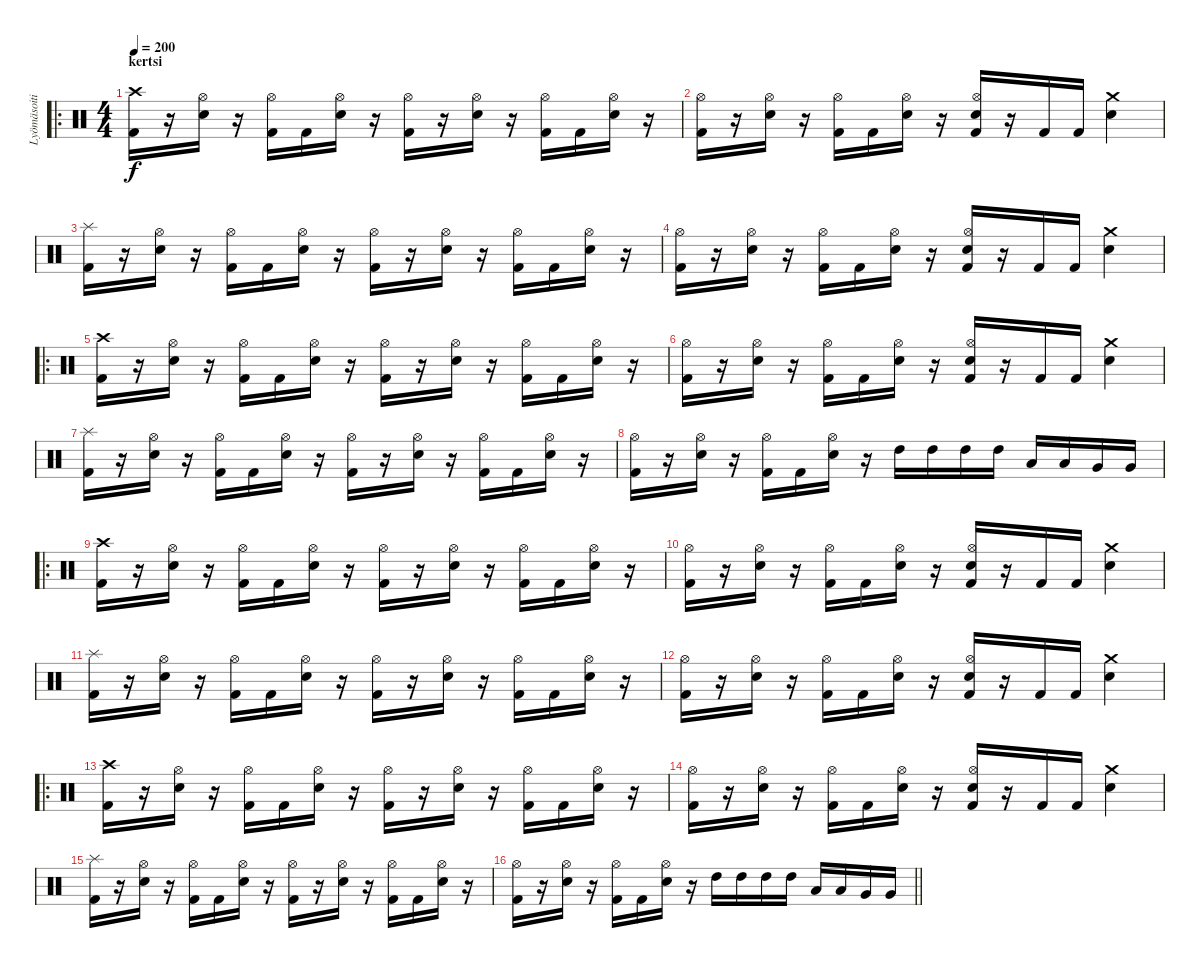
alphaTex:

\track ("Lyömäsoitin" "Lyömäsoiti") {instrument percussion}
\staff {score}
\articulation defaults
\ro
\ts (4 4)
\section ("" "kertsi")
\tempo 200
\clef neutral
\ks c
("Crash high (hit)" "Kick (hit) 2").16{dy f} r.16 ("Hi-Hat (open)" "Electric Snare (hit)").16 r.16 ("Hi-Hat (open)" "Kick (hit) 2").16 "Kick (hit) 2".16 ("Hi-Hat (open)" "Electric Snare (hit)").16 r.16 ("Hi-Hat (open)" "Kick (hit) 2").16 r.16 ("Hi-Hat (open)" "Electric Snare (hit)").16 r.16 ("Hi-Hat (open)" "Kick (hit) 2").16 "Kick (hit) 2".16 ("Hi-Hat (open)" "Electric Snare (hit)").16 r.16 |
("Hi-Hat (open)" "Kick (hit) 2").16 r.16 ("Hi-Hat (open)" "Electric Snare (hit)").16 r.16 ("Hi-Hat (open)" "Kick (hit) 2").16 "Kick (hit) 2".16 ("Hi-Hat (open)" "Electric Snare (hit)").16 r.16 ("Hi-Hat (open)" "Electric Snare (hit)" "Kick (hit) 2").16 r.16 "Kick (hit) 2".16 "Kick (hit) 2".16 ("Crash medium (hit)" "Electric Snare (hit)").4 |
("Splash (hit)" "Kick (hit) 2").16 r.16 ("Hi-Hat (open)" "Electric Snare (hit)").16 r.16 ("Hi-Hat (open)" "Kick (hit) 2").16 "Kick (hit) 2".16 ("Hi-Hat (open)" "Electric Snare (hit)").16 r.16 ("Hi-Hat (open)" "Kick (hit) 2").16 r.16 ("Hi-Hat (open)" "Electric Snare (hit)").16 r.16 ("Hi-Hat (open)" "Kick (hit) 2").16 "Kick (hit) 2".16 ("Hi-Hat (open)" "Electric Snare (hit)").16 r.16 |
("Hi-Hat (open)" "Kick (hit) 2").16 r.16 ("Hi-Hat (open)" "Electric Snare (hit)").16 r.16 ("Hi-Hat (open)" "Kick (hit) 2").16 "Kick (hit) 2".16 ("Hi-Hat (open)" "Electric Snare (hit)").16 r.16 ("Hi-Hat (open)" "Electric Snare (hit)" "Kick (hit) 2").16 r.16 "Kick (hit) 2".16 "Kick (hit) 2".16 ("Crash medium (hit)" "Electric Snare (hit)").4 |
\ro
("Crash high (hit)" "Kick (hit) 2").16 r.16 ("Hi-Hat (open)" "Electric Snare (hit)").16 r.16 ("Hi-Hat (open)" "Kick (hit) 2").16 "Kick (hit) 2".16 ("Hi-Hat (open)" "Electric Snare (hit)").16 r.16 ("Hi-Hat (open)" "Kick (hit) 2").16 r.16 ("Hi-Hat (open)" "Electric Snare (hit)").16 r.16 ("Hi-Hat (open)" "Kick (hit) 2").16 "Kick (hit) 2".16 ("Hi-Hat (open)" "Electric Snare (hit)").16 r.16 |
("Hi-Hat (open)" "Kick (hit) 2").16 r.16 ("Hi-Hat (open)" "Electric Snare (hit)").16 r.16 ("Hi-Hat (open)" "Kick (hit) 2").16 "Kick (hit) 2".16 ("Hi-Hat (open)" "Electric Snare (hit)").16 r.16 ("Hi-Hat (open)" "Electric Snare (hit)" "Kick (hit) 2").16 r.16 "Kick (hit) 2".16 "Kick (hit) 2".16 ("Crash medium (hit)" "Electric Snare (hit)").4 |
("Splash (hit)" "Kick (hit) 2").16 r.16 ("Hi-Hat (open)" "Electric Snare (hit)").16 r.16 ("Hi-Hat (open)" "Kick (hit) 2").16 "Kick (hit) 2".16 ("Hi-Hat (open)" "Electric Snare (hit)").16 r.16 ("Hi-Hat (open)" "Kick (hit) 2").16 r.16 ("Hi-Hat (open)" "Electric Snare (hit)").16 r.16 ("Hi-Hat (open)" "Kick (hit) 2").16 "Kick (hit) 2".16 ("Hi-Hat (open)" "Electric Snare (hit)").16 r.16 |
("Hi-Hat (open)" "Kick (hit) 2").16 r.16 ("Hi-Hat (open)" "Electric Snare (hit)").16 r.16 ("Hi-Hat (open)" "Kick (hit) 2").16 "Kick (hit) 2".16 ("Hi-Hat (open)" "Electric Snare (hit)").16 r.16 "High Tom (hit)".16 "High Tom (hit)".16 "High Tom (hit)".16 "High Tom (hit)".16 "Low Tom (hit)".16 "Low Tom (hit)".16 "Very Low Tom (hit)".16 "Very Low Tom (hit)".16 |
\ro
("Crash high (hit)" "Kick (hit) 2").16 r.16 ("Hi-Hat (open)" "Electric Snare (hit)").16 r.16 ("Hi-Hat (open)" "Kick (hit) 2").16 "Kick (hit) 2".16 ("Hi-Hat (open)" "Electric Snare (hit)").16 r.16 ("Hi-Hat (open)" "Kick (hit) 2").16 r.16 ("Hi-Hat (open)" "Electric Snare (hit)").16 r.16 ("Hi-Hat (open)" "Kick (hit) 2").16 "Kick (hit) 2".16 ("Hi-Hat (open)" "Electric Snare (hit)").16 r.16 |
("Hi-Hat (open)" "Kick (hit) 2").16 r.16 ("Hi-Hat (open)" "Electric Snare (hit)").16 r.16 ("Hi-Hat (open)" "Kick (hit) 2").16 "Kick (hit) 2".16 ("Hi-Hat (open)" "Electric Snare (hit)").16 r.16 ("Hi-Hat (open)" "Electric Snare (hit)" "Kick (hit) 2").16 r.16 "Kick (hit) 2".16 "Kick (hit) 2".16 ("Crash medium (hit)" "Electric Snare (hit)").4 |
("Splash (hit)" "Kick (hit) 2").16 r.16 ("Hi-Hat (open)" "Electric Snare (hit)").16 r.16 ("Hi-Hat (open)" "Kick (hit) 2").16 "Kick (hit) 2".16 ("Hi-Hat (open)" "Electric Snare (hit)").16 r.16 ("Hi-Hat (open)" "Kick (hit) 2").16 r.16 ("Hi-Hat (open)" "Electric Snare (hit)").16 r.16 ("Hi-Hat (open)" "Kick (hit) 2").16 "Kick (hit) 2".16 ("Hi-Hat (open)" "Electric Snare (hit)").16 r.16 |
("Hi-Hat (open)" "Kick (hit) 2").16 r.16 ("Hi-Hat (open)" "Electric Snare (hit)").16 r.16 ("Hi-Hat (open)" "Kick (hit) 2").16 "Kick (hit) 2".16 ("Hi-Hat (open)" "Electric Snare (hit)").16 r.16 ("Hi-Hat (open)" "Electric Snare (hit)" "Kick (hit) 2").16 r.16 "Kick (hit) 2".16 "Kick (hit) 2".16 ("Crash medium (hit)" "Electric Snare (hit)").4 |
\ro
("Crash high (hit)" "Kick (hit) 2").16 r.16 ("Hi-Hat (open)" "Electric Snare (hit)").16 r.16 ("Hi-Hat (open)" "Kick (hit) 2").16 "Kick (hit) 2".16 ("Hi-Hat (open)" "Electric Snare (hit)").16 r.16 ("Hi-Hat (open)" "Kick (hit) 2").16 r.16 ("Hi-Hat (open)" "Electric Snare (hit)").16 r.16 ("Hi-Hat (open)" "Kick (hit) 2").16 "Kick (hit) 2".16 ("Hi-Hat (open)" "Electric Snare (hit)").16 r.16 |
("Hi-Hat (open)" "Kick (hit) 2").16 r.16 ("Hi-Hat (open)" "Electric Snare (hit)").16 r.16 ("Hi-Hat (open)" "Kick (hit) 2").16 "Kick (hit) 2".16 ("Hi-Hat (open)" "Electric Snare (hit)").16 r.16 ("Hi-Hat (open)" "Electric Snare (hit)" "Kick (hit) 2").16 r.16 "Kick (hit) 2".16 "Kick (hit) 2".16 ("Crash medium (hit)" "Electric Snare (hit)").4 |
("Splash (hit)" "Kick (hit) 2").16 r.16 ("Hi-Hat (open)" "Electric Snare (hit)").16 r.16 ("Hi-Hat (open)" "Kick (hit) 2").16 "Kick (hit) 2".16 ("Hi-Hat (open)" "Electric Snare (hit)").16 r.16 ("Hi-Hat (open)" "Kick (hit) 2").16 r.16 ("Hi-Hat (open)" "Electric Snare (hit)").16 r.16 ("Hi-Hat (open)" "Kick (hit) 2").16 "Kick (hit) 2".16 ("Hi-Hat (open)" "Electric Snare (hit)").16 r.16 |
\barLineRight lightlight
("Hi-Hat (open)" "Kick (hit) 2").16 r.16 ("Hi-Hat (open)" "Electric Snare (hit)").16 r.16 ("Hi-Hat (open)" "Kick (hit) 2").16 "Kick (hit) 2".16 ("Hi-Hat (open)" "Electric Snare (hit)").16 r.16 "High Tom (hit)".16 "High Tom (hit)".16 "High Tom (hit)".16 "High Tom (hit)".16 "Low Tom (hit)".16 "Low Tom (hit)".16 "Very Low Tom (hit)".16 "Very Low Tom (hit)".16
